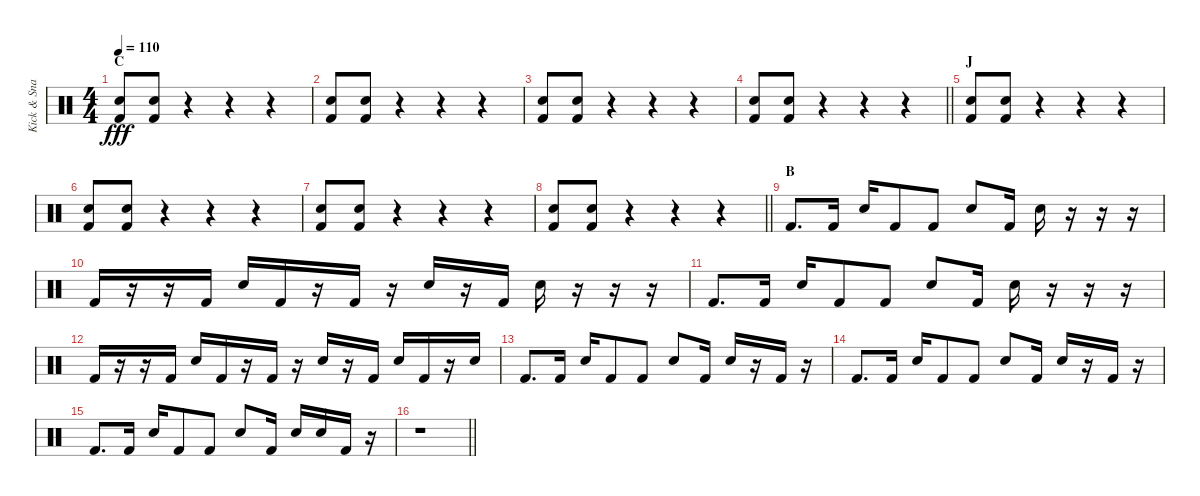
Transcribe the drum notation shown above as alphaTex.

\track ("Kick & Snare" "Kick & Sna") {instrument percussion}
\staff {score}
\articulation defaults
\ts (4 4)
\section ("" "C")
\tempo 110
\clef neutral
\ks c
("Snare (hit) 2" "Kick (hit) 2").8{dy fff} ("Snare (hit) 2" "Kick (hit) 2").8 r.4 r.4 r.4 |
("Snare (hit) 2" "Kick (hit) 2").8 ("Snare (hit) 2" "Kick (hit) 2").8 r.4 r.4 r.4 |
("Snare (hit) 2" "Kick (hit) 2").8 ("Snare (hit) 2" "Kick (hit) 2").8 r.4 r.4 r.4 |
\barLineRight lightlight
("Snare (hit) 2" "Kick (hit) 2").8 ("Snare (hit) 2" "Kick (hit) 2").8 r.4 r.4 r.4 |
\section ("" "J")
("Snare (hit) 2" "Kick (hit) 2").8 ("Snare (hit) 2" "Kick (hit) 2").8 r.4 r.4 r.4 |
("Snare (hit) 2" "Kick (hit) 2").8 ("Snare (hit) 2" "Kick (hit) 2").8 r.4 r.4 r.4 |
("Snare (hit) 2" "Kick (hit) 2").8 ("Snare (hit) 2" "Kick (hit) 2").8 r.4 r.4 r.4 |
\barLineRight lightlight
("Snare (hit) 2" "Kick (hit) 2").8 ("Snare (hit) 2" "Kick (hit) 2").8 r.4 r.4 r.4 |
\section ("" "B")
"Kick (hit) 2".8{d} "Kick (hit) 2".16 "Snare (hit) 2".16 "Kick (hit) 2".8 "Kick (hit) 2".8 "Snare (hit) 2".8 "Kick (hit) 2".16 "Snare (hit) 2".16 r.16 r.16 r.16 |
"Kick (hit) 2".16 r.16 r.16 "Kick (hit) 2".16 "Snare (hit) 2".16 "Kick (hit) 2".16 r.16 "Kick (hit) 2".16 r.16 "Snare (hit) 2".16 r.16 "Kick (hit) 2".16 "Snare (hit) 2".16 r.16 r.16 r.16 |
"Kick (hit) 2".8{d} "Kick (hit) 2".16 "Snare (hit) 2".16 "Kick (hit) 2".8 "Kick (hit) 2".8 "Snare (hit) 2".8 "Kick (hit) 2".16 "Snare (hit) 2".16 r.16 r.16 r.16 |
"Kick (hit) 2".16 r.16 r.16 "Kick (hit) 2".16 "Snare (hit) 2".16 "Kick (hit) 2".16 r.16 "Kick (hit) 2".16 r.16 "Snare (hit) 2".16 r.16 "Kick (hit) 2".16 "Snare (hit) 2".16 "Kick (hit) 2".16 r.16 "Snare (hit) 2".16 |
"Kick (hit) 2".8{d} "Kick (hit) 2".16 "Snare (hit) 2".16 "Kick (hit) 2".8 "Kick (hit) 2".8 "Snare (hit) 2".8 "Kick (hit) 2".16 "Snare (hit) 2".16 r.16 "Kick (hit) 2".16 r.16 |
"Kick (hit) 2".8{d} "Kick (hit) 2".16 "Snare (hit) 2".16 "Kick (hit) 2".8 "Kick (hit) 2".8 "Snare (hit) 2".8 "Kick (hit) 2".16 "Snare (hit) 2".16 r.16 "Kick (hit) 2".16 r.16 |
"Kick (hit) 2".8{d} "Kick (hit) 2".16 "Snare (hit) 2".16 "Kick (hit) 2".8 "Kick (hit) 2".8 "Snare (hit) 2".8 "Kick (hit) 2".16 "Snare (hit) 2".16 "Snare (hit) 2".16 "Kick (hit) 2".16 r.16 |
\barLineRight lightlight
r.1
